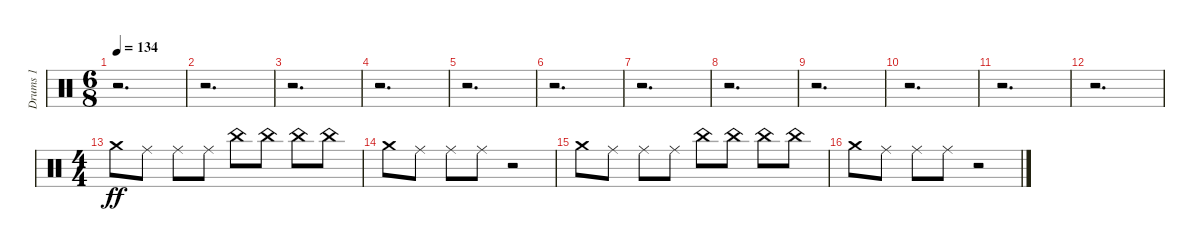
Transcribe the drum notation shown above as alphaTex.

\track ("Drums 1" "Drums 1") {instrument percussion}
\staff {score}
\articulation defaults
\ts (6 8)
\tempo 134
\clef neutral
\ks c
r.2{d dy ff} |
r.2{d} |
r.2{d} |
r.2{d} |
r.2{d} |
r.2{d} |
r.2{d} |
r.2{d} |
r.2{d} |
r.2{d} |
r.2{d} |
r.2{d} |
\ts (4 4)
"Crash medium (hit)".8 "Ride (middle)".8 "Ride (middle)".8 "Ride (middle)".8 "China (hit)".8 "China (hit)".8 "China (hit)".8 "China (hit)".8 |
"Crash medium (hit)".8 "Ride (middle)".8 "Ride (middle)".8 "Ride (middle)".8 r.2 |
"Crash medium (hit)".8 "Ride (middle)".8 "Ride (middle)".8 "Ride (middle)".8 "China (hit)".8 "China (hit)".8 "China (hit)".8 "China (hit)".8 |
"Crash medium (hit)".8 "Ride (middle)".8 "Ride (middle)".8 "Ride (middle)".8 r.2
